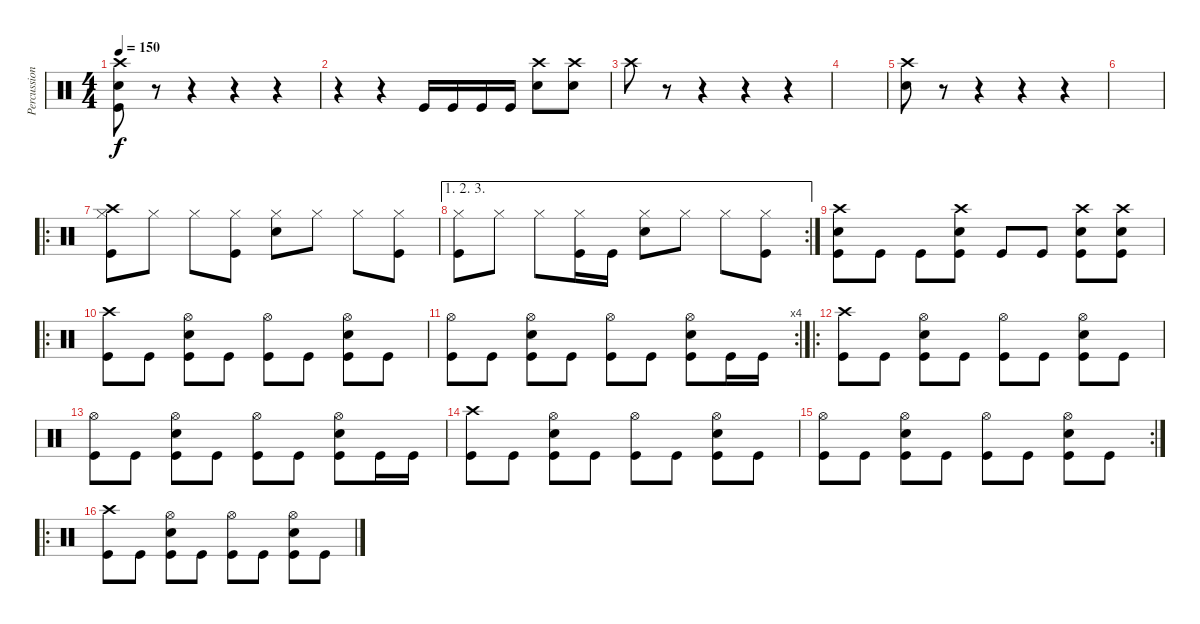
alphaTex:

\track ("Percussion" "Percussion") {instrument percussion}
\staff {score}
\articulation defaults
\ts (4 4)
\tempo 150
\clef neutral
\ks c
("Crash high (hit)" "Snare (hit) 2" "Kick (hit)").8{dy f} r.8 r.4 r.4 r.4 |
r.4 r.4 "Kick (hit)".16 "Kick (hit)".16 "Kick (hit)".16 "Kick (hit)".16 ("Crash high (hit)" "Snare (hit) 2").8 ("Crash high (hit)" "Snare (hit) 2").8 |
"Crash high (hit)".8 r.8 r.4 r.4 r.4 |
|
("Crash high (hit)" "Snare (hit) 2").8 r.8 r.4 r.4 r.4 |
|
\ro
("Hi-Hat (closed)" "Crash high (hit)" "Kick (hit)").8 "Hi-Hat (closed)".8 "Hi-Hat (closed)".8 ("Hi-Hat (closed)" "Kick (hit)").8 ("Hi-Hat (closed)" "Snare (hit) 2").8 "Hi-Hat (closed)".8 "Hi-Hat (closed)".8 ("Hi-Hat (closed)" "Kick (hit)").8 |
\ae (1 2 3)
\rc 2
("Hi-Hat (closed)" "Kick (hit)").8 "Hi-Hat (closed)".8 "Hi-Hat (closed)".8 ("Hi-Hat (closed)" "Kick (hit)").16 "Kick (hit)".16 ("Hi-Hat (closed)" "Snare (hit) 2").8 "Hi-Hat (closed)".8 "Hi-Hat (closed)".8 ("Hi-Hat (closed)" "Kick (hit)").8 |
("Crash high (hit)" "Snare (hit) 2" "Kick (hit)").8 "Kick (hit)".8 "Kick (hit)".8 ("Crash high (hit)" "Snare (hit) 2" "Kick (hit)").8 "Kick (hit)".8 "Kick (hit)".8 ("Crash high (hit)" "Snare (hit) 2" "Kick (hit)").8 ("Crash high (hit)" "Snare (hit) 2" "Kick (hit)").8 |
\ro
("Crash high (hit)" "Kick (hit)").8 "Kick (hit)".8 ("Hi-Hat (open)" "Snare (hit) 2" "Kick (hit)").8 "Kick (hit)".8 ("Hi-Hat (open)" "Kick (hit)").8 "Kick (hit)".8 ("Hi-Hat (open)" "Snare (hit) 2" "Kick (hit)").8 "Kick (hit)".8 |
\rc 4
("Hi-Hat (open)" "Kick (hit)").8 "Kick (hit)".8 ("Hi-Hat (open)" "Snare (hit) 2" "Kick (hit)").8 "Kick (hit)".8 ("Hi-Hat (open)" "Kick (hit)").8 "Kick (hit)".8 ("Hi-Hat (open)" "Snare (hit) 2" "Kick (hit)").8 "Kick (hit)".16 "Kick (hit)".16 |
\ro
("Crash high (hit)" "Kick (hit)").8 "Kick (hit)".8 ("Hi-Hat (open)" "Snare (hit) 2" "Kick (hit)").8 "Kick (hit)".8 ("Hi-Hat (open)" "Kick (hit)").8 "Kick (hit)".8 ("Hi-Hat (open)" "Snare (hit) 2" "Kick (hit)").8 "Kick (hit)".8 |
("Hi-Hat (open)" "Kick (hit)").8 "Kick (hit)".8 ("Hi-Hat (open)" "Snare (hit) 2" "Kick (hit)").8 "Kick (hit)".8 ("Hi-Hat (open)" "Kick (hit)").8 "Kick (hit)".8 ("Hi-Hat (open)" "Snare (hit) 2" "Kick (hit)").8 "Kick (hit)".16 "Kick (hit)".16 |
("Crash high (hit)" "Kick (hit)").8 "Kick (hit)".8 ("Hi-Hat (open)" "Snare (hit) 2" "Kick (hit)").8 "Kick (hit)".8 ("Hi-Hat (open)" "Kick (hit)").8 "Kick (hit)".8 ("Hi-Hat (open)" "Snare (hit) 2" "Kick (hit)").8 "Kick (hit)".8 |
\rc 2
("Hi-Hat (open)" "Kick (hit)").8 "Kick (hit)".8 ("Hi-Hat (open)" "Snare (hit) 2" "Kick (hit)").8 "Kick (hit)".8 ("Hi-Hat (open)" "Kick (hit)").8 "Kick (hit)".8 ("Hi-Hat (open)" "Snare (hit) 2" "Kick (hit)").8 "Kick (hit)".8 |
\ro
("Crash high (hit)" "Kick (hit)").8 "Kick (hit)".8 ("Hi-Hat (open)" "Snare (hit) 2" "Kick (hit)").8 "Kick (hit)".8 ("Hi-Hat (open)" "Kick (hit)").8 "Kick (hit)".8 ("Hi-Hat (open)" "Snare (hit) 2" "Kick (hit)").8 "Kick (hit)".8
